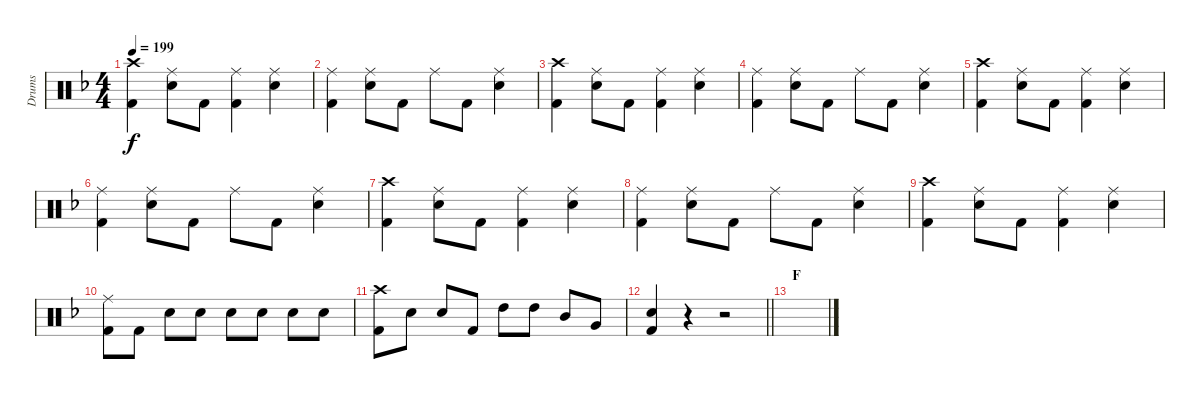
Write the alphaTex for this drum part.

\track ("Drums" "Drums") {instrument percussion}
\staff {score}
\articulation defaults
\ts (4 4)
\tempo 199
\clef neutral
\ks f
("Crash high (hit)" "Kick (hit) 2").4{dy f} ("Ride (middle)" "Snare (hit) 2").8 "Kick (hit) 2".8 ("Ride (middle)" "Kick (hit) 2").4 ("Ride (middle)" "Snare (hit) 2").4 |
("Ride (middle)" "Kick (hit) 2").4 ("Ride (middle)" "Snare (hit) 2").8 "Kick (hit) 2".8 "Ride (middle)".8 "Kick (hit) 2".8 ("Ride (middle)" "Snare (hit) 2").4 |
("Crash high (hit)" "Kick (hit) 2").4 ("Ride (middle)" "Snare (hit) 2").8 "Kick (hit) 2".8 ("Ride (middle)" "Kick (hit) 2").4 ("Ride (middle)" "Snare (hit) 2").4 |
("Ride (middle)" "Kick (hit) 2").4 ("Ride (middle)" "Snare (hit) 2").8 "Kick (hit) 2".8 "Ride (middle)".8 "Kick (hit) 2".8 ("Ride (middle)" "Snare (hit) 2").4 |
("Crash high (hit)" "Kick (hit) 2").4 ("Ride (middle)" "Snare (hit) 2").8 "Kick (hit) 2".8 ("Ride (middle)" "Kick (hit) 2").4 ("Ride (middle)" "Snare (hit) 2").4 |
("Ride (middle)" "Kick (hit) 2").4 ("Ride (middle)" "Snare (hit) 2").8 "Kick (hit) 2".8 "Ride (middle)".8 "Kick (hit) 2".8 ("Ride (middle)" "Snare (hit) 2").4 |
("Crash high (hit)" "Kick (hit) 2").4 ("Ride (middle)" "Snare (hit) 2").8 "Kick (hit) 2".8 ("Ride (middle)" "Kick (hit) 2").4 ("Ride (middle)" "Snare (hit) 2").4 |
("Ride (middle)" "Kick (hit) 2").4 ("Ride (middle)" "Snare (hit) 2").8 "Kick (hit) 2".8 "Ride (middle)".8 "Kick (hit) 2".8 ("Ride (middle)" "Snare (hit) 2").4 |
("Crash high (hit)" "Kick (hit) 2").4 ("Ride (middle)" "Snare (hit) 2").8 "Kick (hit) 2".8 ("Ride (middle)" "Kick (hit) 2").4 ("Ride (middle)" "Snare (hit) 2").4 |
("Ride (middle)" "Kick (hit) 2").8 "Kick (hit) 2".8 "Snare (hit) 2".8 "Snare (hit) 2".8 "Snare (hit) 2".8 "Snare (hit) 2".8 "Snare (hit) 2".8 "Snare (hit) 2".8 |
("Crash high (hit)" "Kick (hit) 2").8 "Snare (hit) 2".8 "Snare (hit) 2".8 "Kick (hit) 2".8 "High Tom (hit)".8 "High Tom (hit)".8 "Mid Tom (hit)".8 "Very Low Tom (hit)".8 |
\barLineRight lightlight
("Snare (hit) 2" "Kick (hit) 2").4 r.4 r.2 |
\section ("" "F")
